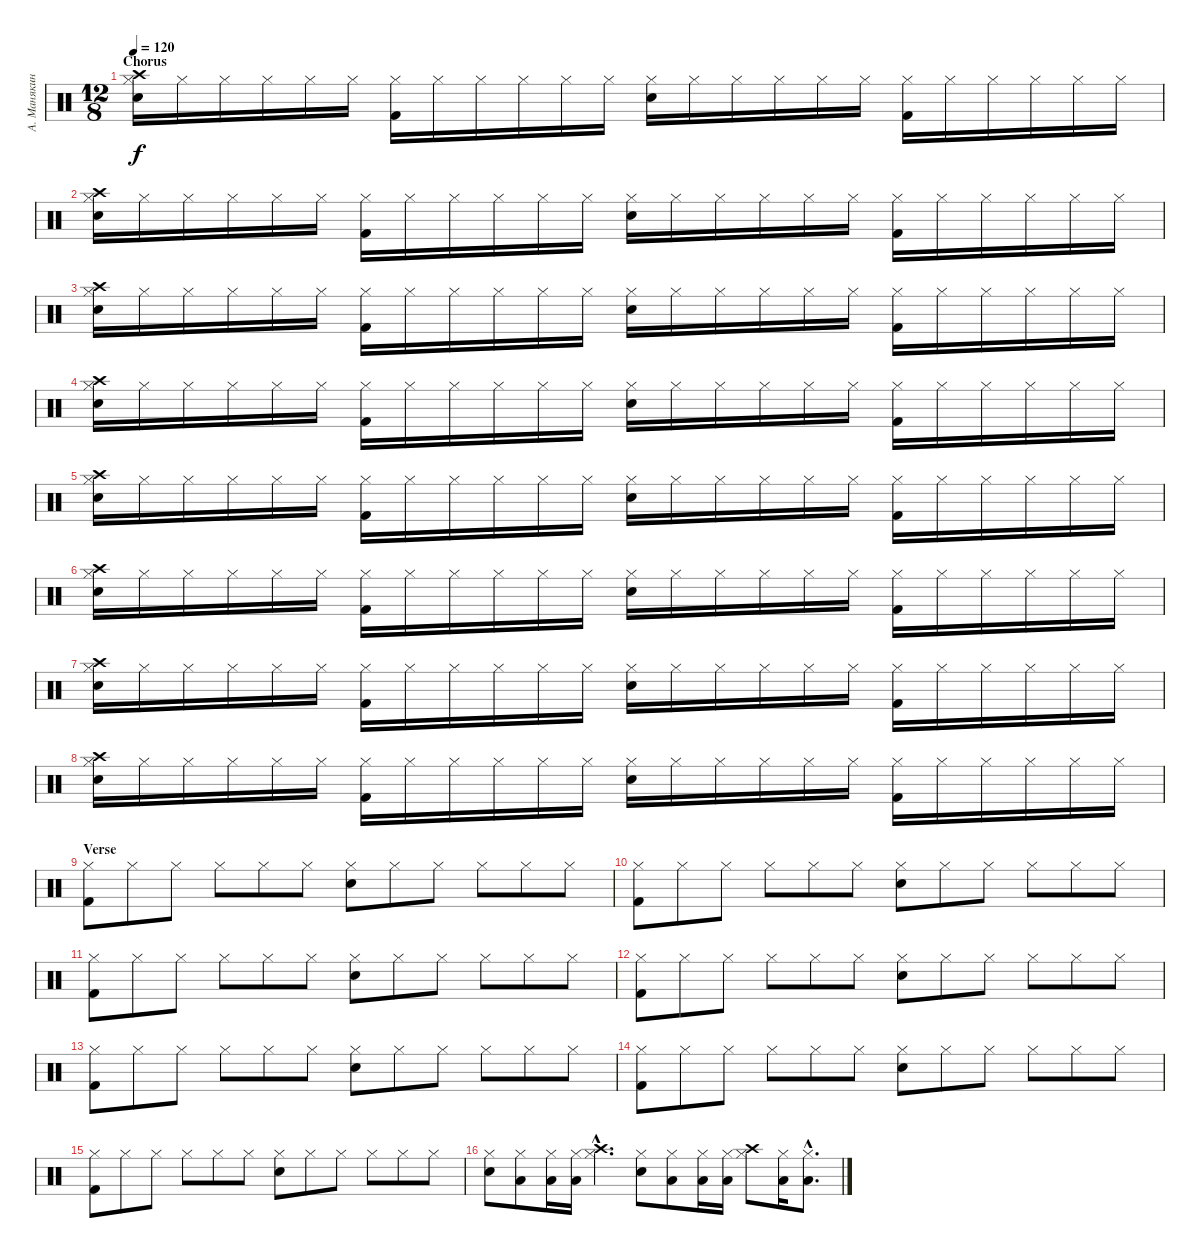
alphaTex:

\track ("А. Манякин" "А. Манякин") {instrument percussion}
\staff {score}
\articulation defaults
\ts (12 8)
\section ("" "Chorus")
\tempo 120
\clef neutral
\ks c
("Hi-Hat (closed)" "Snare (hit) 2" "Crash high (hit)").16{dy f} "Hi-Hat (closed)".16 "Hi-Hat (closed)".16 "Hi-Hat (closed)".16 "Hi-Hat (closed)".16 "Hi-Hat (closed)".16 ("Hi-Hat (closed)" "Kick (hit) 2").16 "Hi-Hat (closed)".16 "Hi-Hat (closed)".16 "Hi-Hat (closed)".16 "Hi-Hat (closed)".16 "Hi-Hat (closed)".16 ("Hi-Hat (closed)" "Snare (hit) 2").16 "Hi-Hat (closed)".16 "Hi-Hat (closed)".16 "Hi-Hat (closed)".16 "Hi-Hat (closed)".16 "Hi-Hat (closed)".16 ("Hi-Hat (closed)" "Kick (hit) 2").16 "Hi-Hat (closed)".16 "Hi-Hat (closed)".16 "Hi-Hat (closed)".16 "Hi-Hat (closed)".16 "Hi-Hat (closed)".16 |
("Hi-Hat (closed)" "Snare (hit) 2" "Crash high (hit)").16 "Hi-Hat (closed)".16 "Hi-Hat (closed)".16 "Hi-Hat (closed)".16 "Hi-Hat (closed)".16 "Hi-Hat (closed)".16 ("Hi-Hat (closed)" "Kick (hit) 2").16 "Hi-Hat (closed)".16 "Hi-Hat (closed)".16 "Hi-Hat (closed)".16 "Hi-Hat (closed)".16 "Hi-Hat (closed)".16 ("Hi-Hat (closed)" "Snare (hit) 2").16 "Hi-Hat (closed)".16 "Hi-Hat (closed)".16 "Hi-Hat (closed)".16 "Hi-Hat (closed)".16 "Hi-Hat (closed)".16 ("Hi-Hat (closed)" "Kick (hit) 2").16 "Hi-Hat (closed)".16 "Hi-Hat (closed)".16 "Hi-Hat (closed)".16 "Hi-Hat (closed)".16 "Hi-Hat (closed)".16 |
("Hi-Hat (closed)" "Snare (hit) 2" "Crash high (hit)").16 "Hi-Hat (closed)".16 "Hi-Hat (closed)".16 "Hi-Hat (closed)".16 "Hi-Hat (closed)".16 "Hi-Hat (closed)".16 ("Hi-Hat (closed)" "Kick (hit) 2").16 "Hi-Hat (closed)".16 "Hi-Hat (closed)".16 "Hi-Hat (closed)".16 "Hi-Hat (closed)".16 "Hi-Hat (closed)".16 ("Hi-Hat (closed)" "Snare (hit) 2").16 "Hi-Hat (closed)".16 "Hi-Hat (closed)".16 "Hi-Hat (closed)".16 "Hi-Hat (closed)".16 "Hi-Hat (closed)".16 ("Hi-Hat (closed)" "Kick (hit) 2").16 "Hi-Hat (closed)".16 "Hi-Hat (closed)".16 "Hi-Hat (closed)".16 "Hi-Hat (closed)".16 "Hi-Hat (closed)".16 |
("Hi-Hat (closed)" "Snare (hit) 2" "Crash high (hit)").16 "Hi-Hat (closed)".16 "Hi-Hat (closed)".16 "Hi-Hat (closed)".16 "Hi-Hat (closed)".16 "Hi-Hat (closed)".16 ("Hi-Hat (closed)" "Kick (hit) 2").16 "Hi-Hat (closed)".16 "Hi-Hat (closed)".16 "Hi-Hat (closed)".16 "Hi-Hat (closed)".16 "Hi-Hat (closed)".16 ("Hi-Hat (closed)" "Snare (hit) 2").16 "Hi-Hat (closed)".16 "Hi-Hat (closed)".16 "Hi-Hat (closed)".16 "Hi-Hat (closed)".16 "Hi-Hat (closed)".16 ("Hi-Hat (closed)" "Kick (hit) 2").16 "Hi-Hat (closed)".16 "Hi-Hat (closed)".16 "Hi-Hat (closed)".16 "Hi-Hat (closed)".16 "Hi-Hat (closed)".16 |
("Hi-Hat (closed)" "Snare (hit) 2" "Crash high (hit)").16 "Hi-Hat (closed)".16 "Hi-Hat (closed)".16 "Hi-Hat (closed)".16 "Hi-Hat (closed)".16 "Hi-Hat (closed)".16 ("Hi-Hat (closed)" "Kick (hit) 2").16 "Hi-Hat (closed)".16 "Hi-Hat (closed)".16 "Hi-Hat (closed)".16 "Hi-Hat (closed)".16 "Hi-Hat (closed)".16 ("Hi-Hat (closed)" "Snare (hit) 2").16 "Hi-Hat (closed)".16 "Hi-Hat (closed)".16 "Hi-Hat (closed)".16 "Hi-Hat (closed)".16 "Hi-Hat (closed)".16 ("Hi-Hat (closed)" "Kick (hit) 2").16 "Hi-Hat (closed)".16 "Hi-Hat (closed)".16 "Hi-Hat (closed)".16 "Hi-Hat (closed)".16 "Hi-Hat (closed)".16 |
("Hi-Hat (closed)" "Snare (hit) 2" "Crash high (hit)").16 "Hi-Hat (closed)".16 "Hi-Hat (closed)".16 "Hi-Hat (closed)".16 "Hi-Hat (closed)".16 "Hi-Hat (closed)".16 ("Hi-Hat (closed)" "Kick (hit) 2").16 "Hi-Hat (closed)".16 "Hi-Hat (closed)".16 "Hi-Hat (closed)".16 "Hi-Hat (closed)".16 "Hi-Hat (closed)".16 ("Hi-Hat (closed)" "Snare (hit) 2").16 "Hi-Hat (closed)".16 "Hi-Hat (closed)".16 "Hi-Hat (closed)".16 "Hi-Hat (closed)".16 "Hi-Hat (closed)".16 ("Hi-Hat (closed)" "Kick (hit) 2").16 "Hi-Hat (closed)".16 "Hi-Hat (closed)".16 "Hi-Hat (closed)".16 "Hi-Hat (closed)".16 "Hi-Hat (closed)".16 |
("Hi-Hat (closed)" "Snare (hit) 2" "Crash high (hit)").16 "Hi-Hat (closed)".16 "Hi-Hat (closed)".16 "Hi-Hat (closed)".16 "Hi-Hat (closed)".16 "Hi-Hat (closed)".16 ("Hi-Hat (closed)" "Kick (hit) 2").16 "Hi-Hat (closed)".16 "Hi-Hat (closed)".16 "Hi-Hat (closed)".16 "Hi-Hat (closed)".16 "Hi-Hat (closed)".16 ("Hi-Hat (closed)" "Snare (hit) 2").16 "Hi-Hat (closed)".16 "Hi-Hat (closed)".16 "Hi-Hat (closed)".16 "Hi-Hat (closed)".16 "Hi-Hat (closed)".16 ("Hi-Hat (closed)" "Kick (hit) 2").16 "Hi-Hat (closed)".16 "Hi-Hat (closed)".16 "Hi-Hat (closed)".16 "Hi-Hat (closed)".16 "Hi-Hat (closed)".16 |
("Hi-Hat (closed)" "Snare (hit) 2" "Crash high (hit)").16 "Hi-Hat (closed)".16 "Hi-Hat (closed)".16 "Hi-Hat (closed)".16 "Hi-Hat (closed)".16 "Hi-Hat (closed)".16 ("Hi-Hat (closed)" "Kick (hit) 2").16 "Hi-Hat (closed)".16 "Hi-Hat (closed)".16 "Hi-Hat (closed)".16 "Hi-Hat (closed)".16 "Hi-Hat (closed)".16 ("Hi-Hat (closed)" "Snare (hit) 2").16 "Hi-Hat (closed)".16 "Hi-Hat (closed)".16 "Hi-Hat (closed)".16 "Hi-Hat (closed)".16 "Hi-Hat (closed)".16 ("Hi-Hat (closed)" "Kick (hit) 2").16 "Hi-Hat (closed)".16 "Hi-Hat (closed)".16 "Hi-Hat (closed)".16 "Hi-Hat (closed)".16 "Hi-Hat (closed)".16 |
\section ("" "Verse")
("Hi-Hat (closed)" "Kick (hit) 2").8 "Hi-Hat (closed)".8 "Hi-Hat (closed)".8 "Hi-Hat (closed)".8 "Hi-Hat (closed)".8 "Hi-Hat (closed)".8 ("Hi-Hat (closed)" "Snare (hit) 2").8 "Hi-Hat (closed)".8 "Hi-Hat (closed)".8 "Hi-Hat (closed)".8 "Hi-Hat (closed)".8 "Hi-Hat (closed)".8 |
("Hi-Hat (closed)" "Kick (hit) 2").8 "Hi-Hat (closed)".8 "Hi-Hat (closed)".8 "Hi-Hat (closed)".8 "Hi-Hat (closed)".8 "Hi-Hat (closed)".8 ("Hi-Hat (closed)" "Snare (hit) 2").8 "Hi-Hat (closed)".8 "Hi-Hat (closed)".8 "Hi-Hat (closed)".8 "Hi-Hat (closed)".8 "Hi-Hat (closed)".8 |
("Hi-Hat (closed)" "Kick (hit) 2").8 "Hi-Hat (closed)".8 "Hi-Hat (closed)".8 "Hi-Hat (closed)".8 "Hi-Hat (closed)".8 "Hi-Hat (closed)".8 ("Hi-Hat (closed)" "Snare (hit) 2").8 "Hi-Hat (closed)".8 "Hi-Hat (closed)".8 "Hi-Hat (closed)".8 "Hi-Hat (closed)".8 "Hi-Hat (closed)".8 |
("Hi-Hat (closed)" "Kick (hit) 2").8 "Hi-Hat (closed)".8 "Hi-Hat (closed)".8 "Hi-Hat (closed)".8 "Hi-Hat (closed)".8 "Hi-Hat (closed)".8 ("Hi-Hat (closed)" "Snare (hit) 2").8 "Hi-Hat (closed)".8 "Hi-Hat (closed)".8 "Hi-Hat (closed)".8 "Hi-Hat (closed)".8 "Hi-Hat (closed)".8 |
("Hi-Hat (closed)" "Kick (hit) 2").8 "Hi-Hat (closed)".8 "Hi-Hat (closed)".8 "Hi-Hat (closed)".8 "Hi-Hat (closed)".8 "Hi-Hat (closed)".8 ("Hi-Hat (closed)" "Snare (hit) 2").8 "Hi-Hat (closed)".8 "Hi-Hat (closed)".8 "Hi-Hat (closed)".8 "Hi-Hat (closed)".8 "Hi-Hat (closed)".8 |
("Hi-Hat (closed)" "Kick (hit) 2").8 "Hi-Hat (closed)".8 "Hi-Hat (closed)".8 "Hi-Hat (closed)".8 "Hi-Hat (closed)".8 "Hi-Hat (closed)".8 ("Hi-Hat (closed)" "Snare (hit) 2").8 "Hi-Hat (closed)".8 "Hi-Hat (closed)".8 "Hi-Hat (closed)".8 "Hi-Hat (closed)".8 "Hi-Hat (closed)".8 |
("Hi-Hat (closed)" "Kick (hit) 2").8 "Hi-Hat (closed)".8 "Hi-Hat (closed)".8 "Hi-Hat (closed)".8 "Hi-Hat (closed)".8 "Hi-Hat (closed)".8 ("Hi-Hat (closed)" "Snare (hit) 2").8 "Hi-Hat (closed)".8 "Hi-Hat (closed)".8 "Hi-Hat (closed)".8 "Hi-Hat (closed)".8 "Hi-Hat (closed)".8 |
("Hi-Hat (closed)" "Snare (hit) 2").8 ("Hi-Hat (closed)" "Low Tom (hit)").8 ("Hi-Hat (closed)" "Low Tom (hit)").16 ("Hi-Hat (closed)" "Low Tom (hit)").16 ("Hi-Hat (closed)"{hac} "Crash high (hit)"{hac}).4{d} ("Hi-Hat (closed)" "Snare (hit) 2").8 ("Hi-Hat (closed)" "Low Tom (hit)").8 ("Hi-Hat (closed)" "Low Tom (hit)").16 ("Hi-Hat (closed)" "Low Tom (hit)").16 ("Hi-Hat (closed)" "Crash high (hit)").8 ("Hi-Hat (closed)" "Low Tom (hit)").16 ("Hi-Hat (closed)"{hac} "Low Tom (hit)"{hac}).8{d}
